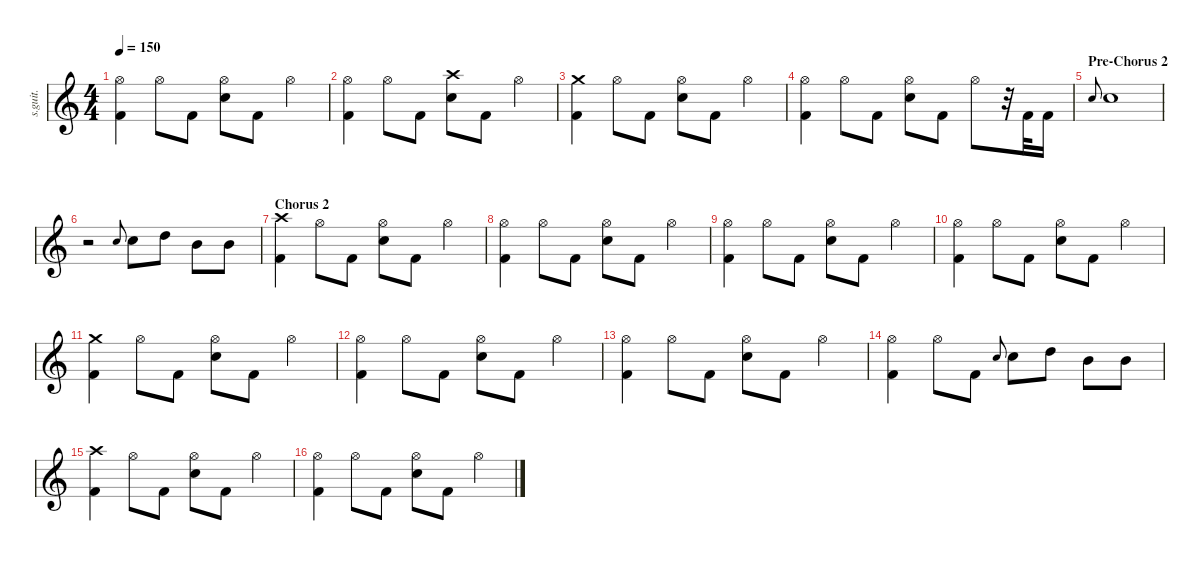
\defaultSystemsLayout 4
\hideDynamics
\bracketExtendMode nobrackets
\track ("Christoph Schneider" "s.guit.") {instrument percussion}
\staff {score}
\articulation defaults
\ts (4 4)
\tempo 150
\clef g2
\ks c
("Kick (hit) 2" "Hi-Hat (open)").4{lyrics (0 "") lyrics (1 "") lyrics (2 "") lyrics (3 "") lyrics (4 "") dy ff} "Hi-Hat (open)".8{lyrics (0 "") lyrics (1 "") lyrics (2 "") lyrics (3 "") lyrics (4 "")} "Kick (hit) 2".8{lyrics (0 "") lyrics (1 "") lyrics (2 "") lyrics (3 "") lyrics (4 "")} ("Snare (hit) 2" "Hi-Hat (open)").8{lyrics (0 "") lyrics (1 "") lyrics (2 "") lyrics (3 "") lyrics (4 "")} "Kick (hit) 2".8{lyrics (0 "") lyrics (1 "") lyrics (2 "") lyrics (3 "") lyrics (4 "")} "Hi-Hat (open)".4{lyrics (0 "") lyrics (1 "") lyrics (2 "") lyrics (3 "") lyrics (4 "")} |
("Kick (hit) 2" "Hi-Hat (open)").4{lyrics (0 "") lyrics (1 "") lyrics (2 "") lyrics (3 "") lyrics (4 "")} "Hi-Hat (open)".8{lyrics (0 "") lyrics (1 "") lyrics (2 "") lyrics (3 "") lyrics (4 "")} "Kick (hit) 2".8{lyrics (0 "") lyrics (1 "") lyrics (2 "") lyrics (3 "") lyrics (4 "")} ("Snare (hit) 2" "Crash high (hit)").8{lyrics (0 "") lyrics (1 "") lyrics (2 "") lyrics (3 "") lyrics (4 "")} "Kick (hit) 2".8{lyrics (0 "") lyrics (1 "") lyrics (2 "") lyrics (3 "") lyrics (4 "")} "Hi-Hat (open)".4{lyrics (0 "") lyrics (1 "") lyrics (2 "") lyrics (3 "") lyrics (4 "")} |
("Crash medium (hit)" "Kick (hit) 2").4{lyrics (0 "") lyrics (1 "") lyrics (2 "") lyrics (3 "") lyrics (4 "")} "Hi-Hat (open)".8{lyrics (0 "") lyrics (1 "") lyrics (2 "") lyrics (3 "") lyrics (4 "")} "Kick (hit) 2".8{lyrics (0 "") lyrics (1 "") lyrics (2 "") lyrics (3 "") lyrics (4 "")} ("Snare (hit) 2" "Hi-Hat (open)").8{lyrics (0 "") lyrics (1 "") lyrics (2 "") lyrics (3 "") lyrics (4 "")} "Kick (hit) 2".8{lyrics (0 "") lyrics (1 "") lyrics (2 "") lyrics (3 "") lyrics (4 "")} "Hi-Hat (open)".4{lyrics (0 "") lyrics (1 "") lyrics (2 "") lyrics (3 "") lyrics (4 "")} |
("Kick (hit) 2" "Hi-Hat (open)").4{lyrics (0 "") lyrics (1 "") lyrics (2 "") lyrics (3 "") lyrics (4 "")} "Hi-Hat (open)".8{lyrics (0 "") lyrics (1 "") lyrics (2 "") lyrics (3 "") lyrics (4 "")} "Kick (hit) 2".8{lyrics (0 "") lyrics (1 "") lyrics (2 "") lyrics (3 "") lyrics (4 "")} ("Snare (hit) 2" "Hi-Hat (open)").8{lyrics (0 "") lyrics (1 "") lyrics (2 "") lyrics (3 "") lyrics (4 "")} "Kick (hit) 2".8{lyrics (0 "") lyrics (1 "") lyrics (2 "") lyrics (3 "") lyrics (4 "")} "Hi-Hat (open)".8{lyrics (0 "") lyrics (1 "") lyrics (2 "") lyrics (3 "") lyrics (4 "")} r.32 "Kick (hit) 2".32{lyrics (0 "") lyrics (1 "") lyrics (2 "") lyrics (3 "") lyrics (4 "")} "Kick (hit) 2".16{lyrics (0 "") lyrics (1 "") lyrics (2 "") lyrics (3 "") lyrics (4 "")} |
\section ("" "Pre-Chorus 2")
"Snare (hit) 2".8{lyrics (0 "") lyrics (1 "") lyrics (2 "") lyrics (3 "") lyrics (4 "") gr onbeat} "Snare (hit) 2".1{lyrics (0 "") lyrics (1 "") lyrics (2 "") lyrics (3 "") lyrics (4 "")} |
r.2 "Snare (hit) 2".8{lyrics (0 "") lyrics (1 "") lyrics (2 "") lyrics (3 "") lyrics (4 "") gr onbeat} "Snare (hit) 2".8{lyrics (0 "") lyrics (1 "") lyrics (2 "") lyrics (3 "") lyrics (4 "")} "High Tom (hit)".8{lyrics (0 "") lyrics (1 "") lyrics (2 "") lyrics (3 "") lyrics (4 "")} "Mid Tom (hit)".8{lyrics (0 "") lyrics (1 "") lyrics (2 "") lyrics (3 "") lyrics (4 "")} "Mid Tom (hit)".8{lyrics (0 "") lyrics (1 "") lyrics (2 "") lyrics (3 "") lyrics (4 "")} |
\section ("" "Chorus 2")
("Kick (hit) 2" "Crash high (hit)").4{lyrics (0 "") lyrics (1 "") lyrics (2 "") lyrics (3 "") lyrics (4 "")} "Hi-Hat (open)".8{lyrics (0 "") lyrics (1 "") lyrics (2 "") lyrics (3 "") lyrics (4 "")} "Kick (hit) 2".8{lyrics (0 "") lyrics (1 "") lyrics (2 "") lyrics (3 "") lyrics (4 "")} ("Snare (hit) 2" "Hi-Hat (open)").8{lyrics (0 "") lyrics (1 "") lyrics (2 "") lyrics (3 "") lyrics (4 "")} "Kick (hit) 2".8{lyrics (0 "") lyrics (1 "") lyrics (2 "") lyrics (3 "") lyrics (4 "")} "Hi-Hat (open)".4{lyrics (0 "") lyrics (1 "") lyrics (2 "") lyrics (3 "") lyrics (4 "")} |
("Kick (hit) 2" "Hi-Hat (open)").4{lyrics (0 "") lyrics (1 "") lyrics (2 "") lyrics (3 "") lyrics (4 "")} "Hi-Hat (open)".8{lyrics (0 "") lyrics (1 "") lyrics (2 "") lyrics (3 "") lyrics (4 "")} "Kick (hit) 2".8{lyrics (0 "") lyrics (1 "") lyrics (2 "") lyrics (3 "") lyrics (4 "")} ("Snare (hit) 2" "Hi-Hat (open)").8{lyrics (0 "") lyrics (1 "") lyrics (2 "") lyrics (3 "") lyrics (4 "")} "Kick (hit) 2".8{lyrics (0 "") lyrics (1 "") lyrics (2 "") lyrics (3 "") lyrics (4 "")} "Hi-Hat (open)".4{lyrics (0 "") lyrics (1 "") lyrics (2 "") lyrics (3 "") lyrics (4 "")} |
("Kick (hit) 2" "Hi-Hat (open)").4{lyrics (0 "") lyrics (1 "") lyrics (2 "") lyrics (3 "") lyrics (4 "")} "Hi-Hat (open)".8{lyrics (0 "") lyrics (1 "") lyrics (2 "") lyrics (3 "") lyrics (4 "")} "Kick (hit) 2".8{lyrics (0 "") lyrics (1 "") lyrics (2 "") lyrics (3 "") lyrics (4 "")} ("Snare (hit) 2" "Hi-Hat (open)").8{lyrics (0 "") lyrics (1 "") lyrics (2 "") lyrics (3 "") lyrics (4 "")} "Kick (hit) 2".8{lyrics (0 "") lyrics (1 "") lyrics (2 "") lyrics (3 "") lyrics (4 "")} "Hi-Hat (open)".4{lyrics (0 "") lyrics (1 "") lyrics (2 "") lyrics (3 "") lyrics (4 "")} |
("Kick (hit) 2" "Hi-Hat (open)").4{lyrics (0 "") lyrics (1 "") lyrics (2 "") lyrics (3 "") lyrics (4 "")} "Hi-Hat (open)".8{lyrics (0 "") lyrics (1 "") lyrics (2 "") lyrics (3 "") lyrics (4 "")} "Kick (hit) 2".8{lyrics (0 "") lyrics (1 "") lyrics (2 "") lyrics (3 "") lyrics (4 "")} ("Snare (hit) 2" "Hi-Hat (open)").8{lyrics (0 "") lyrics (1 "") lyrics (2 "") lyrics (3 "") lyrics (4 "")} "Kick (hit) 2".8{lyrics (0 "") lyrics (1 "") lyrics (2 "") lyrics (3 "") lyrics (4 "")} "Hi-Hat (open)".4{lyrics (0 "") lyrics (1 "") lyrics (2 "") lyrics (3 "") lyrics (4 "")} |
("Crash medium (hit)" "Kick (hit) 2").4{lyrics (0 "") lyrics (1 "") lyrics (2 "") lyrics (3 "") lyrics (4 "")} "Hi-Hat (open)".8{lyrics (0 "") lyrics (1 "") lyrics (2 "") lyrics (3 "") lyrics (4 "")} "Kick (hit) 2".8{lyrics (0 "") lyrics (1 "") lyrics (2 "") lyrics (3 "") lyrics (4 "")} ("Snare (hit) 2" "Hi-Hat (open)").8{lyrics (0 "") lyrics (1 "") lyrics (2 "") lyrics (3 "") lyrics (4 "")} "Kick (hit) 2".8{lyrics (0 "") lyrics (1 "") lyrics (2 "") lyrics (3 "") lyrics (4 "")} "Hi-Hat (open)".4{lyrics (0 "") lyrics (1 "") lyrics (2 "") lyrics (3 "") lyrics (4 "")} |
("Kick (hit) 2" "Hi-Hat (open)").4{lyrics (0 "") lyrics (1 "") lyrics (2 "") lyrics (3 "") lyrics (4 "")} "Hi-Hat (open)".8{lyrics (0 "") lyrics (1 "") lyrics (2 "") lyrics (3 "") lyrics (4 "")} "Kick (hit) 2".8{lyrics (0 "") lyrics (1 "") lyrics (2 "") lyrics (3 "") lyrics (4 "")} ("Snare (hit) 2" "Hi-Hat (open)").8{lyrics (0 "") lyrics (1 "") lyrics (2 "") lyrics (3 "") lyrics (4 "")} "Kick (hit) 2".8{lyrics (0 "") lyrics (1 "") lyrics (2 "") lyrics (3 "") lyrics (4 "")} "Hi-Hat (open)".4{lyrics (0 "") lyrics (1 "") lyrics (2 "") lyrics (3 "") lyrics (4 "")} |
("Kick (hit) 2" "Hi-Hat (open)").4{lyrics (0 "") lyrics (1 "") lyrics (2 "") lyrics (3 "") lyrics (4 "")} "Hi-Hat (open)".8{lyrics (0 "") lyrics (1 "") lyrics (2 "") lyrics (3 "") lyrics (4 "")} "Kick (hit) 2".8{lyrics (0 "") lyrics (1 "") lyrics (2 "") lyrics (3 "") lyrics (4 "")} ("Snare (hit) 2" "Hi-Hat (open)").8{lyrics (0 "") lyrics (1 "") lyrics (2 "") lyrics (3 "") lyrics (4 "")} "Kick (hit) 2".8{lyrics (0 "") lyrics (1 "") lyrics (2 "") lyrics (3 "") lyrics (4 "")} "Hi-Hat (open)".4{lyrics (0 "") lyrics (1 "") lyrics (2 "") lyrics (3 "") lyrics (4 "")} |
("Hi-Hat (open)" "Kick (hit) 2").4{lyrics (0 "") lyrics (1 "") lyrics (2 "") lyrics (3 "") lyrics (4 "")} "Hi-Hat (open)".8{lyrics (0 "") lyrics (1 "") lyrics (2 "") lyrics (3 "") lyrics (4 "")} "Kick (hit) 2".8{lyrics (0 "") lyrics (1 "") lyrics (2 "") lyrics (3 "") lyrics (4 "")} "Snare (hit) 2".8{lyrics (0 "") lyrics (1 "") lyrics (2 "") lyrics (3 "") lyrics (4 "") gr onbeat} "Snare (hit) 2".8{lyrics (0 "") lyrics (1 "") lyrics (2 "") lyrics (3 "") lyrics (4 "")} "High Tom (hit)".8{lyrics (0 "") lyrics (1 "") lyrics (2 "") lyrics (3 "") lyrics (4 "")} "Mid Tom (hit)".8{lyrics (0 "") lyrics (1 "") lyrics (2 "") lyrics (3 "") lyrics (4 "")} "Mid Tom (hit)".8{lyrics (0 "") lyrics (1 "") lyrics (2 "") lyrics (3 "") lyrics (4 "")} |
("Kick (hit) 2" "Crash high (hit)").4{lyrics (0 "") lyrics (1 "") lyrics (2 "") lyrics (3 "") lyrics (4 "")} "Hi-Hat (open)".8{lyrics (0 "") lyrics (1 "") lyrics (2 "") lyrics (3 "") lyrics (4 "")} "Kick (hit) 2".8{lyrics (0 "") lyrics (1 "") lyrics (2 "") lyrics (3 "") lyrics (4 "")} ("Snare (hit) 2" "Hi-Hat (open)").8{lyrics (0 "") lyrics (1 "") lyrics (2 "") lyrics (3 "") lyrics (4 "")} "Kick (hit) 2".8{lyrics (0 "") lyrics (1 "") lyrics (2 "") lyrics (3 "") lyrics (4 "")} "Hi-Hat (open)".4{lyrics (0 "") lyrics (1 "") lyrics (2 "") lyrics (3 "") lyrics (4 "")} |
("Kick (hit) 2" "Hi-Hat (open)").4{lyrics (0 "") lyrics (1 "") lyrics (2 "") lyrics (3 "") lyrics (4 "")} "Hi-Hat (open)".8{lyrics (0 "") lyrics (1 "") lyrics (2 "") lyrics (3 "") lyrics (4 "")} "Kick (hit) 2".8{lyrics (0 "") lyrics (1 "") lyrics (2 "") lyrics (3 "") lyrics (4 "")} ("Snare (hit) 2" "Hi-Hat (open)").8{lyrics (0 "") lyrics (1 "") lyrics (2 "") lyrics (3 "") lyrics (4 "")} "Kick (hit) 2".8{lyrics (0 "") lyrics (1 "") lyrics (2 "") lyrics (3 "") lyrics (4 "")} "Hi-Hat (open)".4{lyrics (0 "") lyrics (1 "") lyrics (2 "") lyrics (3 "") lyrics (4 "")}
